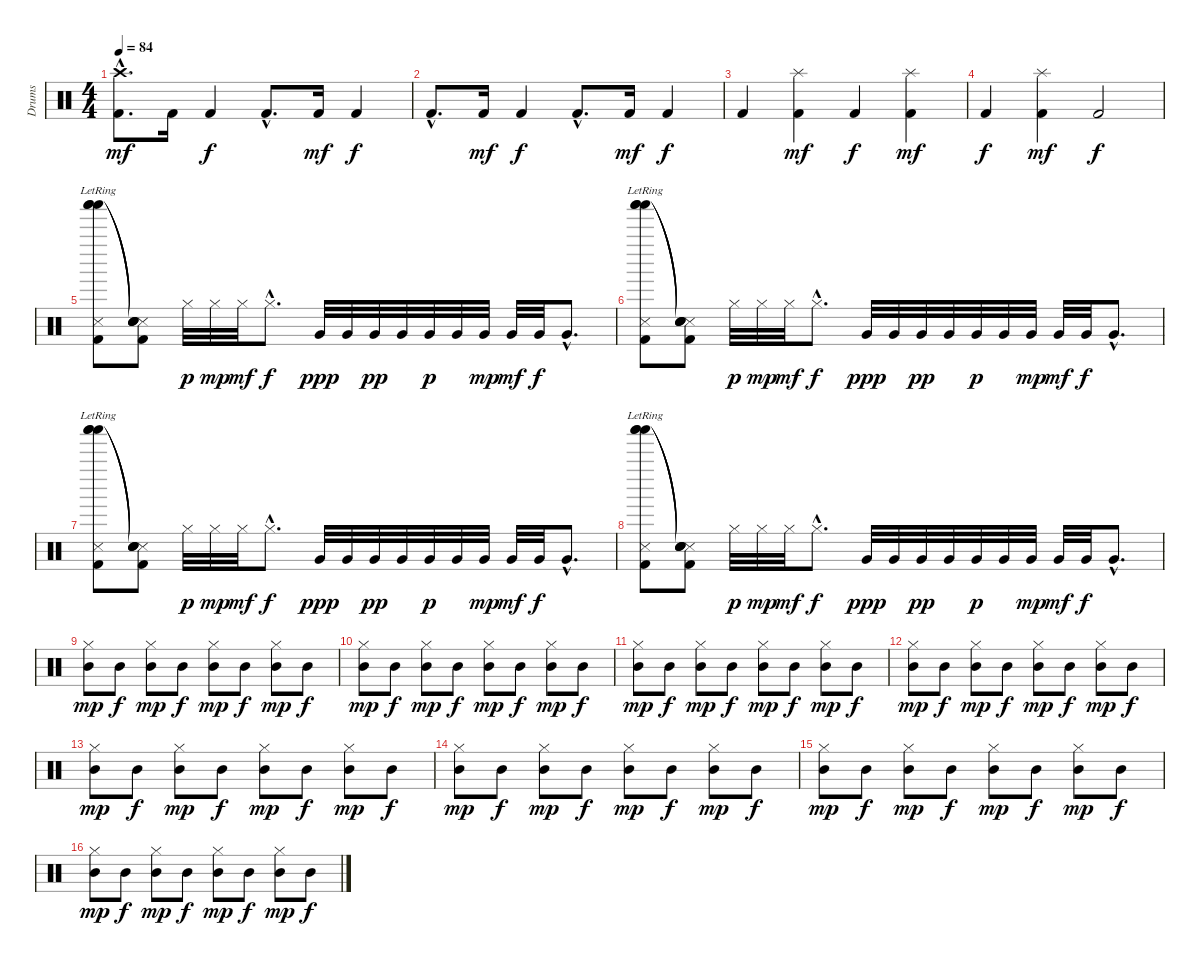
\track ("Drums" "Drums") {instrument percussion}
\staff {score}
\articulation defaults
\ts (4 4)
\tempo 84
\clef neutral
\ks c
("Kick (hit) 2"{hac} "Crash high (hit)"{hac}).8{d dy mf} "Kick (hit) 2".16 "Kick (hit) 2".4{dy f} "Kick (hit) 2"{hac}.8{d} "Kick (hit) 2".16{dy mf} "Kick (hit) 2".4{dy f} |
"Kick (hit) 2"{hac}.8{d} "Kick (hit) 2".16{dy mf} "Kick (hit) 2".4{dy f} "Kick (hit) 2"{hac}.8{d} "Kick (hit) 2".16{dy mf} "Kick (hit) 2".4{dy f} |
"Kick (hit) 2".4 ("Kick (hit) 2" "Splash (hit)").4{dy mf} "Kick (hit) 2".4{dy f} ("Kick (hit) 2" "Splash (hit)").4{dy mf} |
"Kick (hit) 2".4{dy f} ("Kick (hit) 2" "Splash (hit)").4{dy mf} "Kick (hit) 2".2{dy f} |
("Snare (side stick) 3" "Kick (hit) 2" "Shaker (hit)"{lr} "Shaker (hit)"{lr} "Shaker (hit)"{lr}).8 ("Snare (side stick) 3" "Kick (hit) 2" "Snare (hit)"{t} "Snare (hit)"{t} "Snare (hit)"{t}).8 "Hi-Hat (closed)".32{dy p} "Hi-Hat (closed)".32{dy mp} "Hi-Hat (closed)".32{dy mf} "Hi-Hat (closed)"{hac}.8{d dy f} "Very Low Tom (hit)".32{dy ppp} "Very Low Tom (hit)".32 "Very Low Tom (hit)".32{dy pp} "Very Low Tom (hit)".32 "Very Low Tom (hit)".32{dy p} "Very Low Tom (hit)".32 "Very Low Tom (hit)".32{dy mp} "Very Low Tom (hit)".32{dy mf} "Very Low Tom (hit)".32{dy f} "Very Low Tom (hit)"{hac}.8{d} |
("Snare (side stick) 3" "Kick (hit) 2" "Shaker (hit)"{lr} "Shaker (hit)"{lr} "Shaker (hit)"{lr}).8 ("Snare (side stick) 3" "Kick (hit) 2" "Snare (hit)"{t} "Snare (hit)"{t} "Snare (hit)"{t}).8 "Hi-Hat (closed)".32{dy p} "Hi-Hat (closed)".32{dy mp} "Hi-Hat (closed)".32{dy mf} "Hi-Hat (closed)"{hac}.8{d dy f} "Very Low Tom (hit)".32{dy ppp} "Very Low Tom (hit)".32 "Very Low Tom (hit)".32{dy pp} "Very Low Tom (hit)".32 "Very Low Tom (hit)".32{dy p} "Very Low Tom (hit)".32 "Very Low Tom (hit)".32{dy mp} "Very Low Tom (hit)".32{dy mf} "Very Low Tom (hit)".32{dy f} "Very Low Tom (hit)"{hac}.8{d} |
("Snare (side stick) 3" "Kick (hit) 2" "Shaker (hit)"{lr} "Shaker (hit)"{lr} "Shaker (hit)"{lr}).8 ("Snare (side stick) 3" "Kick (hit) 2" "Snare (hit)"{t} "Snare (hit)"{t} "Snare (hit)"{t}).8 "Hi-Hat (closed)".32{dy p} "Hi-Hat (closed)".32{dy mp} "Hi-Hat (closed)".32{dy mf} "Hi-Hat (closed)"{hac}.8{d dy f} "Very Low Tom (hit)".32{dy ppp} "Very Low Tom (hit)".32 "Very Low Tom (hit)".32{dy pp} "Very Low Tom (hit)".32 "Very Low Tom (hit)".32{dy p} "Very Low Tom (hit)".32 "Very Low Tom (hit)".32{dy mp} "Very Low Tom (hit)".32{dy mf} "Very Low Tom (hit)".32{dy f} "Very Low Tom (hit)"{hac}.8{d} |
("Snare (side stick) 3" "Kick (hit) 2" "Shaker (hit)"{lr} "Shaker (hit)"{lr} "Shaker (hit)"{lr}).8 ("Snare (side stick) 3" "Kick (hit) 2" "Snare (hit)"{t} "Snare (hit)"{t} "Snare (hit)"{t}).8 "Hi-Hat (closed)".32{dy p} "Hi-Hat (closed)".32{dy mp} "Hi-Hat (closed)".32{dy mf} "Hi-Hat (closed)"{hac}.8{d dy f} "Very Low Tom (hit)".32{dy ppp} "Very Low Tom (hit)".32 "Very Low Tom (hit)".32{dy pp} "Very Low Tom (hit)".32 "Very Low Tom (hit)".32{dy p} "Very Low Tom (hit)".32 "Very Low Tom (hit)".32{dy mp} "Very Low Tom (hit)".32{dy mf} "Very Low Tom (hit)".32{dy f} "Very Low Tom (hit)"{hac}.8{d} |
("Mid Tom (hit)" "Hi-Hat (closed)").8{dy mp} "Mid Tom (hit)".8{dy f} ("Mid Tom (hit)" "Hi-Hat (closed)").8{dy mp} "Mid Tom (hit)".8{dy f} ("Mid Tom (hit)" "Hi-Hat (closed)").8{dy mp} "Mid Tom (hit)".8{dy f} ("Mid Tom (hit)" "Hi-Hat (closed)").8{dy mp} "Mid Tom (hit)".8{dy f} |
("Mid Tom (hit)" "Hi-Hat (closed)").8{dy mp} "Mid Tom (hit)".8{dy f} ("Mid Tom (hit)" "Hi-Hat (closed)").8{dy mp} "Mid Tom (hit)".8{dy f} ("Mid Tom (hit)" "Hi-Hat (closed)").8{dy mp} "Mid Tom (hit)".8{dy f} ("Mid Tom (hit)" "Hi-Hat (closed)").8{dy mp} "Mid Tom (hit)".8{dy f} |
("Mid Tom (hit)" "Hi-Hat (closed)").8{dy mp} "Mid Tom (hit)".8{dy f} ("Mid Tom (hit)" "Hi-Hat (closed)").8{dy mp} "Mid Tom (hit)".8{dy f} ("Mid Tom (hit)" "Hi-Hat (closed)").8{dy mp} "Mid Tom (hit)".8{dy f} ("Mid Tom (hit)" "Hi-Hat (closed)").8{dy mp} "Mid Tom (hit)".8{dy f} |
("Mid Tom (hit)" "Hi-Hat (closed)").8{dy mp} "Mid Tom (hit)".8{dy f} ("Mid Tom (hit)" "Hi-Hat (closed)").8{dy mp} "Mid Tom (hit)".8{dy f} ("Mid Tom (hit)" "Hi-Hat (closed)").8{dy mp} "Mid Tom (hit)".8{dy f} ("Mid Tom (hit)" "Hi-Hat (closed)").8{dy mp} "Mid Tom (hit)".8{dy f} |
("Mid Tom (hit)" "Hi-Hat (closed)").8{dy mp} "Mid Tom (hit)".8{dy f} ("Mid Tom (hit)" "Hi-Hat (closed)").8{dy mp} "Mid Tom (hit)".8{dy f} ("Mid Tom (hit)" "Hi-Hat (closed)").8{dy mp} "Mid Tom (hit)".8{dy f} ("Mid Tom (hit)" "Hi-Hat (closed)").8{dy mp} "Mid Tom (hit)".8{dy f} |
("Mid Tom (hit)" "Hi-Hat (closed)").8{dy mp} "Mid Tom (hit)".8{dy f} ("Mid Tom (hit)" "Hi-Hat (closed)").8{dy mp} "Mid Tom (hit)".8{dy f} ("Mid Tom (hit)" "Hi-Hat (closed)").8{dy mp} "Mid Tom (hit)".8{dy f} ("Mid Tom (hit)" "Hi-Hat (closed)").8{dy mp} "Mid Tom (hit)".8{dy f} |
("Mid Tom (hit)" "Hi-Hat (closed)").8{dy mp} "Mid Tom (hit)".8{dy f} ("Mid Tom (hit)" "Hi-Hat (closed)").8{dy mp} "Mid Tom (hit)".8{dy f} ("Mid Tom (hit)" "Hi-Hat (closed)").8{dy mp} "Mid Tom (hit)".8{dy f} ("Mid Tom (hit)" "Hi-Hat (closed)").8{dy mp} "Mid Tom (hit)".8{dy f} |
("Mid Tom (hit)" "Hi-Hat (closed)").8{dy mp} "Mid Tom (hit)".8{dy f} ("Mid Tom (hit)" "Hi-Hat (closed)").8{dy mp} "Mid Tom (hit)".8{dy f} ("Mid Tom (hit)" "Hi-Hat (closed)").8{dy mp} "Mid Tom (hit)".8{dy f} ("Mid Tom (hit)" "Hi-Hat (closed)").8{dy mp} "Mid Tom (hit)".8{dy f}
